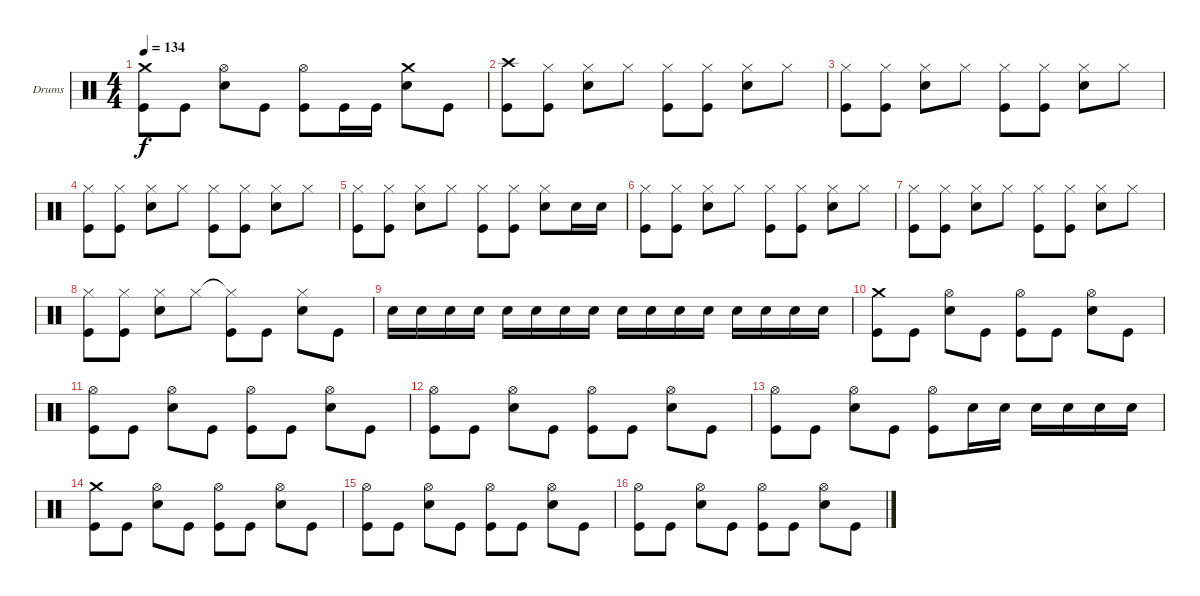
\defaultSystemsLayout 4
\bracketExtendMode groupsimilarinstruments
\firstSystemTrackNameOrientation horizontal
\otherSystemsTrackNameOrientation horizontal
\track ("Drumkit" "Drums") {instrument percussion}
\staff {score}
\articulation defaults
\ts (4 4)
\tempo 134
\clef neutral
\scale
0.333333
\ks c
("Crash medium (hit)" "Kick (hit)").8{dy f} "Kick (hit)".8 ("Hi-Hat (open)" "Snare (hit) 2").8 "Kick (hit)".8 ("Hi-Hat (open)" "Kick (hit)").8 "Kick (hit)".16 "Kick (hit)".16 ("Crash medium (hit)" "Snare (hit) 2").8 "Kick (hit)".8 |
\scale
0.333333 ("Crash high (hit)" "Kick (hit)").8 ("Hi-Hat (closed)" "Kick (hit)").8 ("Hi-Hat (closed)" "Snare (hit) 2").8 "Hi-Hat (closed)".8 ("Hi-Hat (closed)" "Kick (hit)").8 ("Hi-Hat (closed)" "Kick (hit)").8 ("Hi-Hat (closed)" "Snare (hit) 2").8 "Hi-Hat (closed)".8 |
\scale
0.333333 ("Hi-Hat (closed)" "Kick (hit)").8 ("Hi-Hat (closed)" "Kick (hit)").8 ("Hi-Hat (closed)" "Snare (hit) 2").8 "Hi-Hat (closed)".8 ("Hi-Hat (closed)" "Kick (hit)").8 ("Hi-Hat (closed)" "Kick (hit)").8 ("Hi-Hat (closed)" "Snare (hit) 2").8 "Hi-Hat (closed)".8 |
\scale
0.333333 ("Hi-Hat (closed)" "Kick (hit)").8 ("Hi-Hat (closed)" "Kick (hit)").8 ("Hi-Hat (closed)" "Snare (hit) 2").8 "Hi-Hat (closed)".8 ("Hi-Hat (closed)" "Kick (hit)").8 ("Hi-Hat (closed)" "Kick (hit)").8 ("Hi-Hat (closed)" "Snare (hit) 2").8 "Hi-Hat (closed)".8 |
\scale
0.333333 ("Hi-Hat (closed)" "Kick (hit)").8 ("Hi-Hat (closed)" "Kick (hit)").8 ("Hi-Hat (closed)" "Snare (hit) 2").8 "Hi-Hat (closed)".8 ("Hi-Hat (closed)" "Kick (hit)").8 ("Hi-Hat (closed)" "Kick (hit)").8 ("Hi-Hat (closed)" "Snare (hit) 2").8 "Snare (hit) 2".16 "Snare (hit) 2".16 |
\scale
0.333333 ("Hi-Hat (closed)" "Kick (hit)").8 ("Hi-Hat (closed)" "Kick (hit)").8 ("Hi-Hat (closed)" "Snare (hit) 2").8 "Hi-Hat (closed)".8 ("Hi-Hat (closed)" "Kick (hit)").8 ("Hi-Hat (closed)" "Kick (hit)").8 ("Hi-Hat (closed)" "Snare (hit) 2").8 "Hi-Hat (closed)".8 |
\scale
0.333333 ("Hi-Hat (closed)" "Kick (hit)").8 ("Hi-Hat (closed)" "Kick (hit)").8 ("Hi-Hat (closed)" "Snare (hit) 2").8 "Hi-Hat (closed)".8 ("Hi-Hat (closed)" "Kick (hit)").8 ("Hi-Hat (closed)" "Kick (hit)").8 ("Hi-Hat (closed)" "Snare (hit) 2").8 "Hi-Hat (closed)".8 |
\scale
0.333333 ("Hi-Hat (closed)" "Kick (hit)").8 ("Hi-Hat (closed)" "Kick (hit)").8 ("Hi-Hat (closed)" "Snare (hit) 2").8 "Hi-Hat (closed)".8 ("Hi-Hat (closed)"{t} "Kick (hit)").8 "Kick (hit)".8 ("Hi-Hat (closed)" "Snare (hit) 2").8 "Kick (hit)".8 |
\scale
0.333333 "Snare (hit) 2".16 "Snare (hit) 2".16 "Snare (hit) 2".16 "Snare (hit) 2".16 "Snare (hit) 2".16 "Snare (hit) 2".16 "Snare (hit) 2".16 "Snare (hit) 2".16 "Snare (hit) 2".16 "Snare (hit) 2".16 "Snare (hit) 2".16 "Snare (hit) 2".16 "Snare (hit) 2".16 "Snare (hit) 2".16 "Snare (hit) 2".16 "Snare (hit) 2".16 |
\scale
0.333333 ("Crash medium (hit)" "Kick (hit)").8 "Kick (hit)".8 ("Hi-Hat (open)" "Snare (hit) 2").8 "Kick (hit)".8 ("Hi-Hat (open)" "Kick (hit)").8 "Kick (hit)".8 ("Hi-Hat (open)" "Snare (hit) 2").8 "Kick (hit)".8 |
\scale
0.333333 ("Hi-Hat (open)" "Kick (hit)").8 "Kick (hit)".8 ("Hi-Hat (open)" "Snare (hit) 2").8 "Kick (hit)".8 ("Hi-Hat (open)" "Kick (hit)").8 "Kick (hit)".8 ("Hi-Hat (open)" "Snare (hit) 2").8 "Kick (hit)".8 |
\scale
0.333333 ("Hi-Hat (open)" "Kick (hit)").8 "Kick (hit)".8 ("Hi-Hat (open)" "Snare (hit) 2").8 "Kick (hit)".8 ("Hi-Hat (open)" "Kick (hit)").8 "Kick (hit)".8 ("Hi-Hat (open)" "Snare (hit) 2").8 "Kick (hit)".8 |
\scale
0.333333 ("Hi-Hat (open)" "Kick (hit)").8 "Kick (hit)".8 ("Hi-Hat (open)" "Snare (hit) 2").8 "Kick (hit)".8 ("Hi-Hat (open)" "Kick (hit)").8 "Snare (hit) 2".16 "Snare (hit) 2".16 "Snare (hit) 2".16 "Snare (hit) 2".16 "Snare (hit) 2".16 "Snare (hit) 2".16 |
\scale
0.333333 ("Crash medium (hit)" "Kick (hit)").8 "Kick (hit)".8 ("Hi-Hat (open)" "Snare (hit) 2").8 "Kick (hit)".8 ("Hi-Hat (open)" "Kick (hit)").8 "Kick (hit)".8 ("Hi-Hat (open)" "Snare (hit) 2").8 "Kick (hit)".8 |
\scale
0.333333 ("Hi-Hat (open)" "Kick (hit)").8 "Kick (hit)".8 ("Hi-Hat (open)" "Snare (hit) 2").8 "Kick (hit)".8 ("Hi-Hat (open)" "Kick (hit)").8 "Kick (hit)".8 ("Hi-Hat (open)" "Snare (hit) 2").8 "Kick (hit)".8 |
\scale
0.333333 ("Hi-Hat (open)" "Kick (hit)").8 "Kick (hit)".8 ("Hi-Hat (open)" "Snare (hit) 2").8 "Kick (hit)".8 ("Hi-Hat (open)" "Kick (hit)").8 "Kick (hit)".8 ("Hi-Hat (open)" "Snare (hit) 2").8 "Kick (hit)".8
